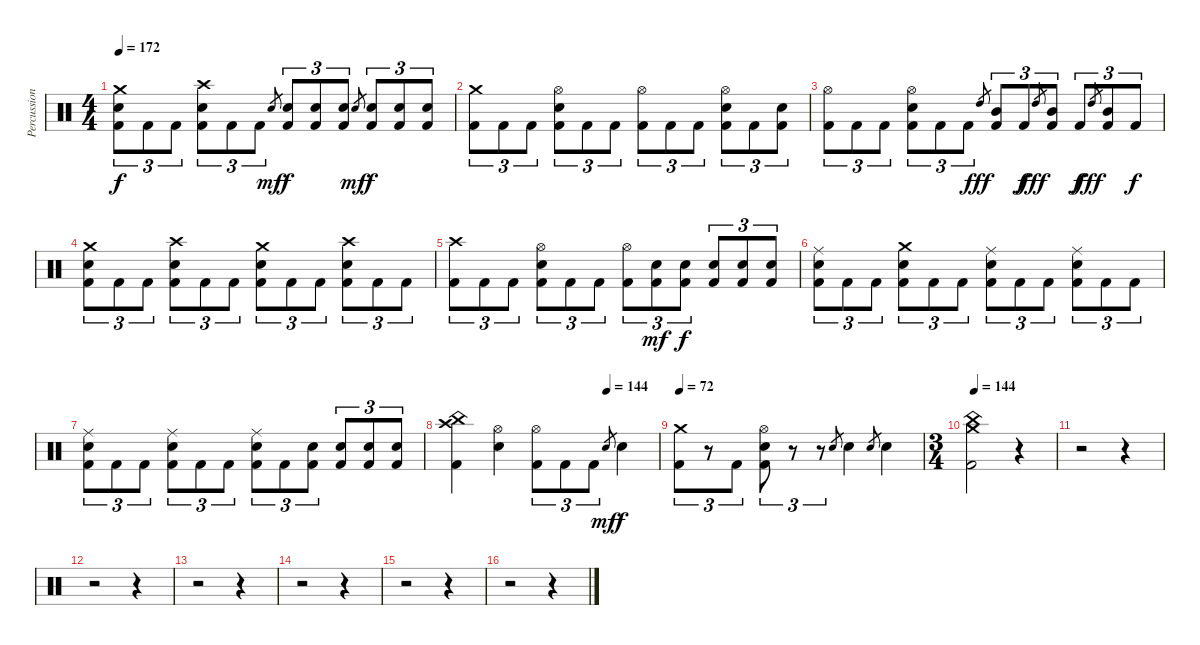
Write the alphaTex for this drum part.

\track ("Percussion" "Percussion") {instrument percussion}
\staff {score}
\articulation defaults
\ts (4 4)
\tempo 172
\clef neutral
\ks c
("Crash medium (hit)" "Snare (hit) 2" "Kick (hit) 2").8{tu (3 2) dy f} "Kick (hit) 2".8{tu (3 2)} "Kick (hit) 2".8{tu (3 2)} ("Crash high (hit)" "Snare (hit) 2" "Kick (hit) 2").8{tu (3 2)} "Kick (hit) 2".8{tu (3 2)} "Kick (hit) 2".8{tu (3 2)} "Snare (hit) 2".8{gr dy mf} ("Snare (hit) 2" "Kick (hit) 2").8{tu (3 2) dy f} ("Snare (hit) 2" "Kick (hit) 2").8{tu (3 2)} ("Snare (hit) 2" "Kick (hit) 2").8{tu (3 2)} "Snare (hit) 2".8{gr dy mf} ("Snare (hit) 2" "Kick (hit) 2").8{tu (3 2) dy f} ("Snare (hit) 2" "Kick (hit) 2").8{tu (3 2)} ("Snare (hit) 2" "Kick (hit) 2").8{tu (3 2)} |
\section ("" "")
("Crash medium (hit)" "Kick (hit) 2").8{tu (3 2)} "Kick (hit) 2".8{tu (3 2)} "Kick (hit) 2".8{tu (3 2)} ("Hi-Hat (open)" "Snare (hit) 2" "Kick (hit) 2").8{tu (3 2)} "Kick (hit) 2".8{tu (3 2)} "Kick (hit) 2".8{tu (3 2)} ("Hi-Hat (open)" "Kick (hit) 2").8{tu (3 2)} "Kick (hit) 2".8{tu (3 2)} "Kick (hit) 2".8{tu (3 2)} ("Hi-Hat (open)" "Snare (hit) 2" "Kick (hit) 2").8{tu (3 2)} "Kick (hit) 2".8{tu (3 2)} ("Snare (hit) 2" "Kick (hit) 2").8{tu (3 2)} |
("Hi-Hat (open)" "Kick (hit) 2").8{tu (3 2)} "Kick (hit) 2".8{tu (3 2)} "Kick (hit) 2".8{tu (3 2)} ("Hi-Hat (open)" "Snare (hit) 2" "Kick (hit) 2").8{tu (3 2)} "Kick (hit) 2".8{tu (3 2)} "Kick (hit) 2".8{tu (3 2)} "High Tom (hit)".8{gr dy fff} ("Mid Tom (hit)" "Kick (hit) 2").8{tu (3 2)} "Kick (hit) 2".8{tu (3 2) dy f} "High Tom (hit)".8{gr dy fff} ("Mid Tom (hit)" "Kick (hit) 2").8{tu (3 2)} "Kick (hit) 2".8{tu (3 2) dy f} "High Tom (hit)".8{gr dy fff} ("Mid Tom (hit)" "Kick (hit) 2").8{tu (3 2)} "Kick (hit) 2".8{tu (3 2) dy f} |
("Crash medium (hit)" "Snare (hit) 2" "Kick (hit) 2").8{tu (3 2)} "Kick (hit) 2".8{tu (3 2)} "Kick (hit) 2".8{tu (3 2)} ("Crash high (hit)" "Snare (hit) 2" "Kick (hit) 2").8{tu (3 2)} "Kick (hit) 2".8{tu (3 2)} "Kick (hit) 2".8{tu (3 2)} ("Crash medium (hit)" "Snare (hit) 2" "Kick (hit) 2").8{tu (3 2)} "Kick (hit) 2".8{tu (3 2)} "Kick (hit) 2".8{tu (3 2)} ("Crash high (hit)" "Snare (hit) 2" "Kick (hit) 2").8{tu (3 2)} "Kick (hit) 2".8{tu (3 2)} "Kick (hit) 2".8{tu (3 2)} |
("Crash high (hit)" "Kick (hit) 2").8{tu (3 2)} "Kick (hit) 2".8{tu (3 2)} "Kick (hit) 2".8{tu (3 2)} ("Hi-Hat (open)" "Snare (hit) 2" "Kick (hit) 2").8{tu (3 2)} "Kick (hit) 2".8{tu (3 2)} "Kick (hit) 2".8{tu (3 2)} ("Hi-Hat (open)" "Kick (hit) 2").8{tu (3 2)} ("Snare (hit) 2" "Kick (hit) 2").8{tu (3 2) dy mf} ("Snare (hit) 2" "Kick (hit) 2").8{tu (3 2) dy f} ("Snare (hit) 2" "Kick (hit) 2").8{tu (3 2)} ("Snare (hit) 2" "Kick (hit) 2").8{tu (3 2)} ("Snare (hit) 2" "Kick (hit) 2").8{tu (3 2)} |
("Ride (middle)" "Snare (hit) 2" "Kick (hit) 2").8{tu (3 2)} "Kick (hit) 2".8{tu (3 2)} "Kick (hit) 2".8{tu (3 2)} ("Crash medium (hit)" "Snare (hit) 2" "Kick (hit) 2").8{tu (3 2)} "Kick (hit) 2".8{tu (3 2)} "Kick (hit) 2".8{tu (3 2)} ("Ride (middle)" "Snare (hit) 2" "Kick (hit) 2").8{tu (3 2)} "Kick (hit) 2".8{tu (3 2)} "Kick (hit) 2".8{tu (3 2)} ("Ride (middle)" "Snare (hit) 2" "Kick (hit) 2").8{tu (3 2)} "Kick (hit) 2".8{tu (3 2)} "Kick (hit) 2".8{tu (3 2)} |
("Ride (middle)" "Snare (hit) 2" "Kick (hit) 2").8{tu (3 2)} "Kick (hit) 2".8{tu (3 2)} "Kick (hit) 2".8{tu (3 2)} ("Ride (middle)" "Snare (hit) 2" "Kick (hit) 2").8{tu (3 2)} "Kick (hit) 2".8{tu (3 2)} "Kick (hit) 2".8{tu (3 2)} ("Ride (middle)" "Snare (hit) 2" "Kick (hit) 2").8{tu (3 2)} "Kick (hit) 2".8{tu (3 2)} ("Snare (hit) 2" "Kick (hit) 2").8{tu (3 2)} ("Snare (hit) 2" "Kick (hit) 2").8{tu (3 2)} ("Snare (hit) 2" "Kick (hit) 2").8{tu (3 2)} ("Snare (hit) 2" "Kick (hit) 2").8{tu (3 2)} |
\tempo (144 0.75)
("Crash high (hit)" "China (hit)" "Kick (hit) 2").4 ("Hi-Hat (open)" "Snare (hit) 2").4 ("Hi-Hat (open)" "Kick (hit) 2").8{tu (3 2)} "Kick (hit) 2".8{tu (3 2)} "Kick (hit) 2".8{tu (3 2)} "Snare (hit) 2".8{gr dy mf} "Snare (hit) 2".4{dy f} |
\tempo 72
("Crash medium (hit)" "Kick (hit) 2").8{tu (3 2)} r.8{tu (3 2)} "Kick (hit) 2".8{tu (3 2)} ("Hi-Hat (open)" "Snare (hit) 2" "Kick (hit) 2").8{tu (3 2)} r.8{tu (3 2)} r.8{tu (3 2)} "Snare (hit) 2".8{gr} "Snare (hit) 2".4 "Snare (hit) 2".8{gr} "Snare (hit) 2".4 |
\ts (3 4)
\section ("" "")
\tempo 144
("Crash medium (hit)" "China (hit)" "Kick (hit) 2").2 r.4 |
r.2 r.4 |
r.2 r.4 |
r.2 r.4 |
r.2 r.4 |
r.2 r.4 |
r.2 r.4
